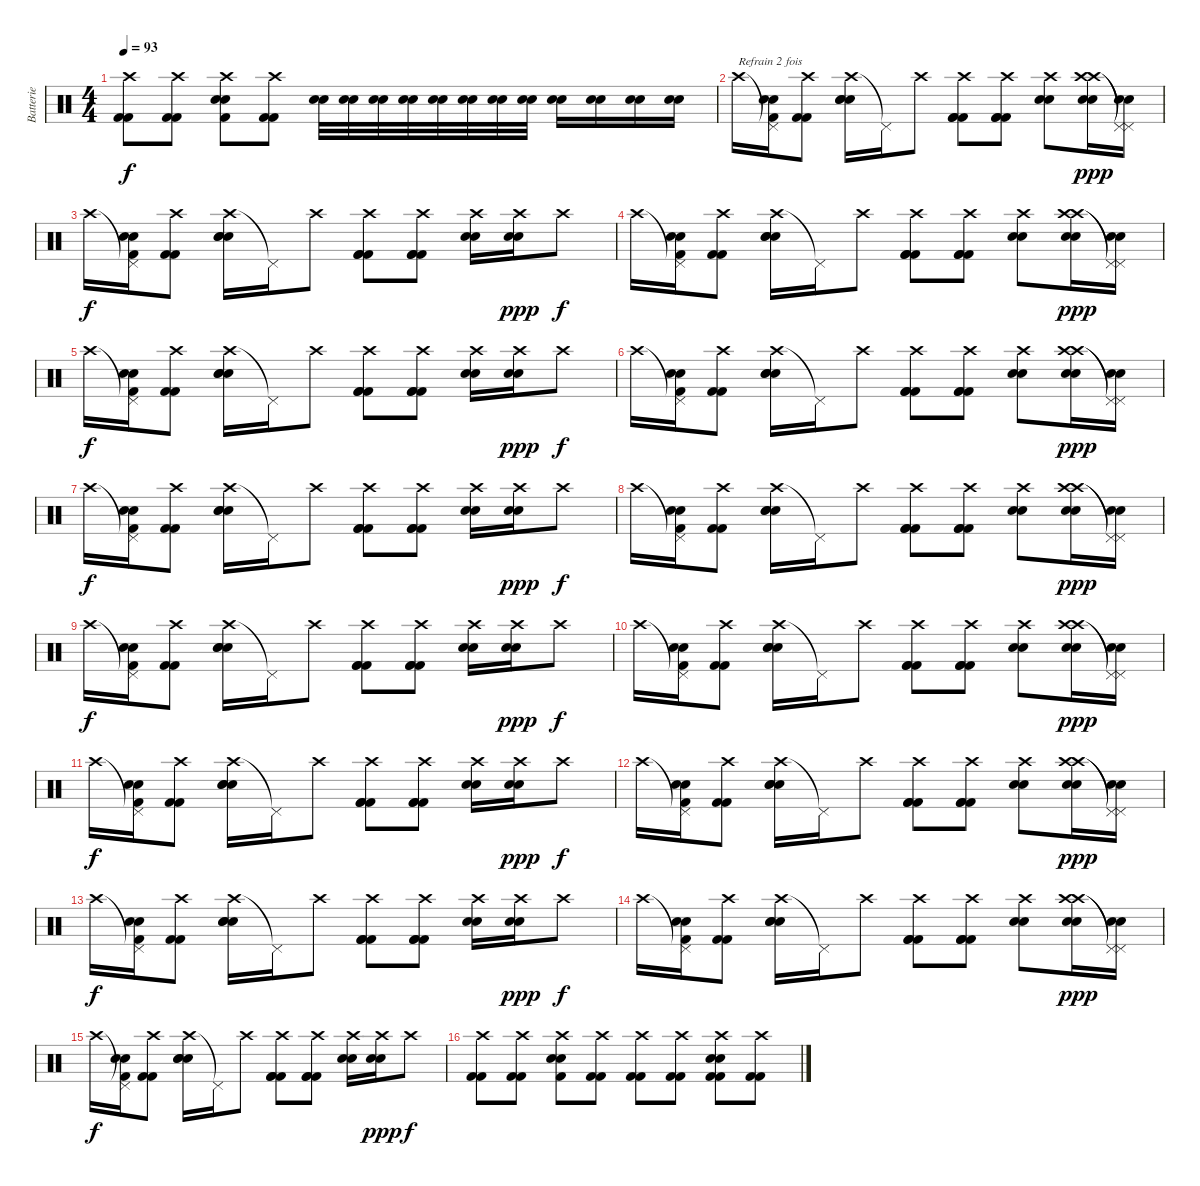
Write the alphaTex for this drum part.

\track ("Batterie" "Batterie") {instrument percussion}
\staff {score}
\articulation defaults
\ts (4 4)
\tempo 93
\clef neutral
\ks c
("Crash high (hit)" "Kick (hit) 2" "Kick (hit) 2").8{dy f} ("Crash high (hit)" "Kick (hit) 2" "Kick (hit) 2").8 ("Crash high (hit)" "Snare (hit) 2" "Snare (hit) 2" "Kick (hit) 2").8 ("Crash high (hit)" "Kick (hit) 2" "Kick (hit) 2").8 ("Snare (hit) 2" "Snare (hit) 2").32 ("Snare (hit) 2" "Snare (hit) 2").32 ("Snare (hit) 2" "Snare (hit) 2").32 ("Snare (hit) 2" "Snare (hit) 2").32 ("Snare (hit) 2" "Snare (hit) 2").32 ("Snare (hit) 2" "Snare (hit) 2").32 ("Snare (hit) 2" "Snare (hit) 2").32 ("Snare (hit) 2" "Snare (hit) 2").32 ("Snare (hit) 2" "Snare (hit) 2").16 ("Snare (hit) 2" "Snare (hit) 2").16 ("Snare (hit) 2" "Snare (hit) 2").16 ("Snare (hit) 2" "Snare (hit) 2").16 |
"Crash high (hit)".16{txt "Refrain 2 fois"} ("Pedal Hi-Hat (hit)"{t} "Snare (hit) 2" "Snare (hit) 2" "Kick (hit) 2").16 ("Crash high (hit)" "Kick (hit) 2" "Kick (hit) 2").8 ("Crash high (hit)" "Snare (hit) 2" "Snare (hit) 2" "Snare (hit) 2").16 "Pedal Hi-Hat (hit)"{t}.16 "Crash high (hit)".8 ("Crash high (hit)" "Kick (hit) 2" "Kick (hit) 2" "Kick (hit) 2").8 ("Crash high (hit)" "Kick (hit) 2" "Kick (hit) 2" "Kick (hit) 2").8 ("Crash high (hit)" "Snare (hit) 2" "Snare (hit) 2").8 ("Crash high (hit)" "Crash high (hit)" "Snare (hit) 2" "Snare (hit) 2").16{dy ppp} ("Pedal Hi-Hat (hit)"{t} "Pedal Hi-Hat (hit)"{t} "Snare (hit) 2" "Snare (hit) 2").16 |
"Crash high (hit)".16{dy f} ("Pedal Hi-Hat (hit)"{t} "Snare (hit) 2" "Snare (hit) 2" "Kick (hit) 2").16 ("Crash high (hit)" "Kick (hit) 2" "Kick (hit) 2").8 ("Crash high (hit)" "Snare (hit) 2" "Snare (hit) 2" "Snare (hit) 2").16 "Pedal Hi-Hat (hit)"{t}.16 "Crash high (hit)".8 ("Crash high (hit)" "Kick (hit) 2" "Kick (hit) 2" "Kick (hit) 2").8 ("Crash high (hit)" "Kick (hit) 2" "Kick (hit) 2" "Kick (hit) 2").8 ("Crash high (hit)" "Snare (hit) 2" "Snare (hit) 2").16 ("Crash high (hit)" "Snare (hit) 2" "Snare (hit) 2").16{dy ppp} "Crash high (hit)".8{dy f} |
"Crash high (hit)".16 ("Pedal Hi-Hat (hit)"{t} "Snare (hit) 2" "Snare (hit) 2" "Kick (hit) 2").16 ("Crash high (hit)" "Kick (hit) 2" "Kick (hit) 2").8 ("Crash high (hit)" "Snare (hit) 2" "Snare (hit) 2" "Snare (hit) 2").16 "Pedal Hi-Hat (hit)"{t}.16 "Crash high (hit)".8 ("Crash high (hit)" "Kick (hit) 2" "Kick (hit) 2" "Kick (hit) 2").8 ("Crash high (hit)" "Kick (hit) 2" "Kick (hit) 2" "Kick (hit) 2").8 ("Crash high (hit)" "Snare (hit) 2" "Snare (hit) 2").8 ("Crash high (hit)" "Crash high (hit)" "Snare (hit) 2" "Snare (hit) 2").16{dy ppp} ("Pedal Hi-Hat (hit)"{t} "Pedal Hi-Hat (hit)"{t} "Snare (hit) 2" "Snare (hit) 2").16 |
"Crash high (hit)".16{dy f} ("Pedal Hi-Hat (hit)"{t} "Snare (hit) 2" "Snare (hit) 2" "Kick (hit) 2").16 ("Crash high (hit)" "Kick (hit) 2" "Kick (hit) 2").8 ("Crash high (hit)" "Snare (hit) 2" "Snare (hit) 2" "Snare (hit) 2").16 "Pedal Hi-Hat (hit)"{t}.16 "Crash high (hit)".8 ("Crash high (hit)" "Kick (hit) 2" "Kick (hit) 2" "Kick (hit) 2").8 ("Crash high (hit)" "Kick (hit) 2" "Kick (hit) 2" "Kick (hit) 2").8 ("Crash high (hit)" "Snare (hit) 2" "Snare (hit) 2").16 ("Crash high (hit)" "Snare (hit) 2" "Snare (hit) 2").16{dy ppp} "Crash high (hit)".8{dy f} |
"Crash high (hit)".16 ("Pedal Hi-Hat (hit)"{t} "Snare (hit) 2" "Snare (hit) 2" "Kick (hit) 2").16 ("Crash high (hit)" "Kick (hit) 2" "Kick (hit) 2").8 ("Crash high (hit)" "Snare (hit) 2" "Snare (hit) 2" "Snare (hit) 2").16 "Pedal Hi-Hat (hit)"{t}.16 "Crash high (hit)".8 ("Crash high (hit)" "Kick (hit) 2" "Kick (hit) 2" "Kick (hit) 2").8 ("Crash high (hit)" "Kick (hit) 2" "Kick (hit) 2" "Kick (hit) 2").8 ("Crash high (hit)" "Snare (hit) 2" "Snare (hit) 2").8 ("Crash high (hit)" "Crash high (hit)" "Snare (hit) 2" "Snare (hit) 2").16{dy ppp} ("Pedal Hi-Hat (hit)"{t} "Pedal Hi-Hat (hit)"{t} "Snare (hit) 2" "Snare (hit) 2").16 |
"Crash high (hit)".16{dy f} ("Pedal Hi-Hat (hit)"{t} "Snare (hit) 2" "Snare (hit) 2" "Kick (hit) 2").16 ("Crash high (hit)" "Kick (hit) 2" "Kick (hit) 2").8 ("Crash high (hit)" "Snare (hit) 2" "Snare (hit) 2" "Snare (hit) 2").16 "Pedal Hi-Hat (hit)"{t}.16 "Crash high (hit)".8 ("Crash high (hit)" "Kick (hit) 2" "Kick (hit) 2" "Kick (hit) 2").8 ("Crash high (hit)" "Kick (hit) 2" "Kick (hit) 2" "Kick (hit) 2").8 ("Crash high (hit)" "Snare (hit) 2" "Snare (hit) 2").16 ("Crash high (hit)" "Snare (hit) 2" "Snare (hit) 2").16{dy ppp} "Crash high (hit)".8{dy f} |
"Crash high (hit)".16 ("Pedal Hi-Hat (hit)"{t} "Snare (hit) 2" "Snare (hit) 2" "Kick (hit) 2").16 ("Crash high (hit)" "Kick (hit) 2" "Kick (hit) 2").8 ("Crash high (hit)" "Snare (hit) 2" "Snare (hit) 2" "Snare (hit) 2").16 "Pedal Hi-Hat (hit)"{t}.16 "Crash high (hit)".8 ("Crash high (hit)" "Kick (hit) 2" "Kick (hit) 2" "Kick (hit) 2").8 ("Crash high (hit)" "Kick (hit) 2" "Kick (hit) 2" "Kick (hit) 2").8 ("Crash high (hit)" "Snare (hit) 2" "Snare (hit) 2").8 ("Crash high (hit)" "Crash high (hit)" "Snare (hit) 2" "Snare (hit) 2").16{dy ppp} ("Pedal Hi-Hat (hit)"{t} "Pedal Hi-Hat (hit)"{t} "Snare (hit) 2" "Snare (hit) 2").16 |
"Crash high (hit)".16{dy f} ("Pedal Hi-Hat (hit)"{t} "Snare (hit) 2" "Snare (hit) 2" "Kick (hit) 2").16 ("Crash high (hit)" "Kick (hit) 2" "Kick (hit) 2").8 ("Crash high (hit)" "Snare (hit) 2" "Snare (hit) 2" "Snare (hit) 2").16 "Pedal Hi-Hat (hit)"{t}.16 "Crash high (hit)".8 ("Crash high (hit)" "Kick (hit) 2" "Kick (hit) 2" "Kick (hit) 2").8 ("Crash high (hit)" "Kick (hit) 2" "Kick (hit) 2" "Kick (hit) 2").8 ("Crash high (hit)" "Snare (hit) 2" "Snare (hit) 2").16 ("Crash high (hit)" "Snare (hit) 2" "Snare (hit) 2").16{dy ppp} "Crash high (hit)".8{dy f} |
"Crash high (hit)".16 ("Pedal Hi-Hat (hit)"{t} "Snare (hit) 2" "Snare (hit) 2" "Kick (hit) 2").16 ("Crash high (hit)" "Kick (hit) 2" "Kick (hit) 2").8 ("Crash high (hit)" "Snare (hit) 2" "Snare (hit) 2" "Snare (hit) 2").16 "Pedal Hi-Hat (hit)"{t}.16 "Crash high (hit)".8 ("Crash high (hit)" "Kick (hit) 2" "Kick (hit) 2" "Kick (hit) 2").8 ("Crash high (hit)" "Kick (hit) 2" "Kick (hit) 2" "Kick (hit) 2").8 ("Crash high (hit)" "Snare (hit) 2" "Snare (hit) 2").8 ("Crash high (hit)" "Crash high (hit)" "Snare (hit) 2" "Snare (hit) 2").16{dy ppp} ("Pedal Hi-Hat (hit)"{t} "Pedal Hi-Hat (hit)"{t} "Snare (hit) 2" "Snare (hit) 2").16 |
"Crash high (hit)".16{dy f} ("Pedal Hi-Hat (hit)"{t} "Snare (hit) 2" "Snare (hit) 2" "Kick (hit) 2").16 ("Crash high (hit)" "Kick (hit) 2" "Kick (hit) 2").8 ("Crash high (hit)" "Snare (hit) 2" "Snare (hit) 2" "Snare (hit) 2").16 "Pedal Hi-Hat (hit)"{t}.16 "Crash high (hit)".8 ("Crash high (hit)" "Kick (hit) 2" "Kick (hit) 2" "Kick (hit) 2").8 ("Crash high (hit)" "Kick (hit) 2" "Kick (hit) 2" "Kick (hit) 2").8 ("Crash high (hit)" "Snare (hit) 2" "Snare (hit) 2").16 ("Crash high (hit)" "Snare (hit) 2" "Snare (hit) 2").16{dy ppp} "Crash high (hit)".8{dy f} |
"Crash high (hit)".16 ("Pedal Hi-Hat (hit)"{t} "Snare (hit) 2" "Snare (hit) 2" "Kick (hit) 2").16 ("Crash high (hit)" "Kick (hit) 2" "Kick (hit) 2").8 ("Crash high (hit)" "Snare (hit) 2" "Snare (hit) 2" "Snare (hit) 2").16 "Pedal Hi-Hat (hit)"{t}.16 "Crash high (hit)".8 ("Crash high (hit)" "Kick (hit) 2" "Kick (hit) 2" "Kick (hit) 2").8 ("Crash high (hit)" "Kick (hit) 2" "Kick (hit) 2" "Kick (hit) 2").8 ("Crash high (hit)" "Snare (hit) 2" "Snare (hit) 2").8 ("Crash high (hit)" "Crash high (hit)" "Snare (hit) 2" "Snare (hit) 2").16{dy ppp} ("Pedal Hi-Hat (hit)"{t} "Pedal Hi-Hat (hit)"{t} "Snare (hit) 2" "Snare (hit) 2").16 |
"Crash high (hit)".16{dy f} ("Pedal Hi-Hat (hit)"{t} "Snare (hit) 2" "Snare (hit) 2" "Kick (hit) 2").16 ("Crash high (hit)" "Kick (hit) 2" "Kick (hit) 2").8 ("Crash high (hit)" "Snare (hit) 2" "Snare (hit) 2" "Snare (hit) 2").16 "Pedal Hi-Hat (hit)"{t}.16 "Crash high (hit)".8 ("Crash high (hit)" "Kick (hit) 2" "Kick (hit) 2" "Kick (hit) 2").8 ("Crash high (hit)" "Kick (hit) 2" "Kick (hit) 2" "Kick (hit) 2").8 ("Crash high (hit)" "Snare (hit) 2" "Snare (hit) 2").16 ("Crash high (hit)" "Snare (hit) 2" "Snare (hit) 2").16{dy ppp} "Crash high (hit)".8{dy f} |
"Crash high (hit)".16 ("Pedal Hi-Hat (hit)"{t} "Snare (hit) 2" "Snare (hit) 2" "Kick (hit) 2").16 ("Crash high (hit)" "Kick (hit) 2" "Kick (hit) 2").8 ("Crash high (hit)" "Snare (hit) 2" "Snare (hit) 2" "Snare (hit) 2").16 "Pedal Hi-Hat (hit)"{t}.16 "Crash high (hit)".8 ("Crash high (hit)" "Kick (hit) 2" "Kick (hit) 2" "Kick (hit) 2").8 ("Crash high (hit)" "Kick (hit) 2" "Kick (hit) 2" "Kick (hit) 2").8 ("Crash high (hit)" "Snare (hit) 2" "Snare (hit) 2").8 ("Crash high (hit)" "Crash high (hit)" "Snare (hit) 2" "Snare (hit) 2").16{dy ppp} ("Pedal Hi-Hat (hit)"{t} "Pedal Hi-Hat (hit)"{t} "Snare (hit) 2" "Snare (hit) 2").16 |
"Crash high (hit)".16{dy f} ("Pedal Hi-Hat (hit)"{t} "Snare (hit) 2" "Snare (hit) 2" "Kick (hit) 2").16 ("Crash high (hit)" "Kick (hit) 2" "Kick (hit) 2").8 ("Crash high (hit)" "Snare (hit) 2" "Snare (hit) 2" "Snare (hit) 2").16 "Pedal Hi-Hat (hit)"{t}.16 "Crash high (hit)".8 ("Crash high (hit)" "Kick (hit) 2" "Kick (hit) 2" "Kick (hit) 2").8 ("Crash high (hit)" "Kick (hit) 2" "Kick (hit) 2" "Kick (hit) 2").8 ("Crash high (hit)" "Snare (hit) 2" "Snare (hit) 2").16 ("Crash high (hit)" "Snare (hit) 2" "Snare (hit) 2").16{dy ppp} "Crash high (hit)".8{dy f} |
("Crash high (hit)" "Kick (hit) 2" "Kick (hit) 2").8 ("Crash high (hit)" "Kick (hit) 2" "Kick (hit) 2").8 ("Crash high (hit)" "Snare (hit) 2" "Snare (hit) 2" "Kick (hit) 2").8 ("Crash high (hit)" "Kick (hit) 2" "Kick (hit) 2").8 ("Crash high (hit)" "Kick (hit) 2" "Kick (hit) 2").8 ("Crash high (hit)" "Kick (hit) 2" "Kick (hit) 2").8 ("Crash high (hit)" "Snare (hit) 2" "Snare (hit) 2" "Kick (hit) 2" "Kick (hit) 2").8 ("Crash high (hit)" "Kick (hit) 2" "Kick (hit) 2").8
